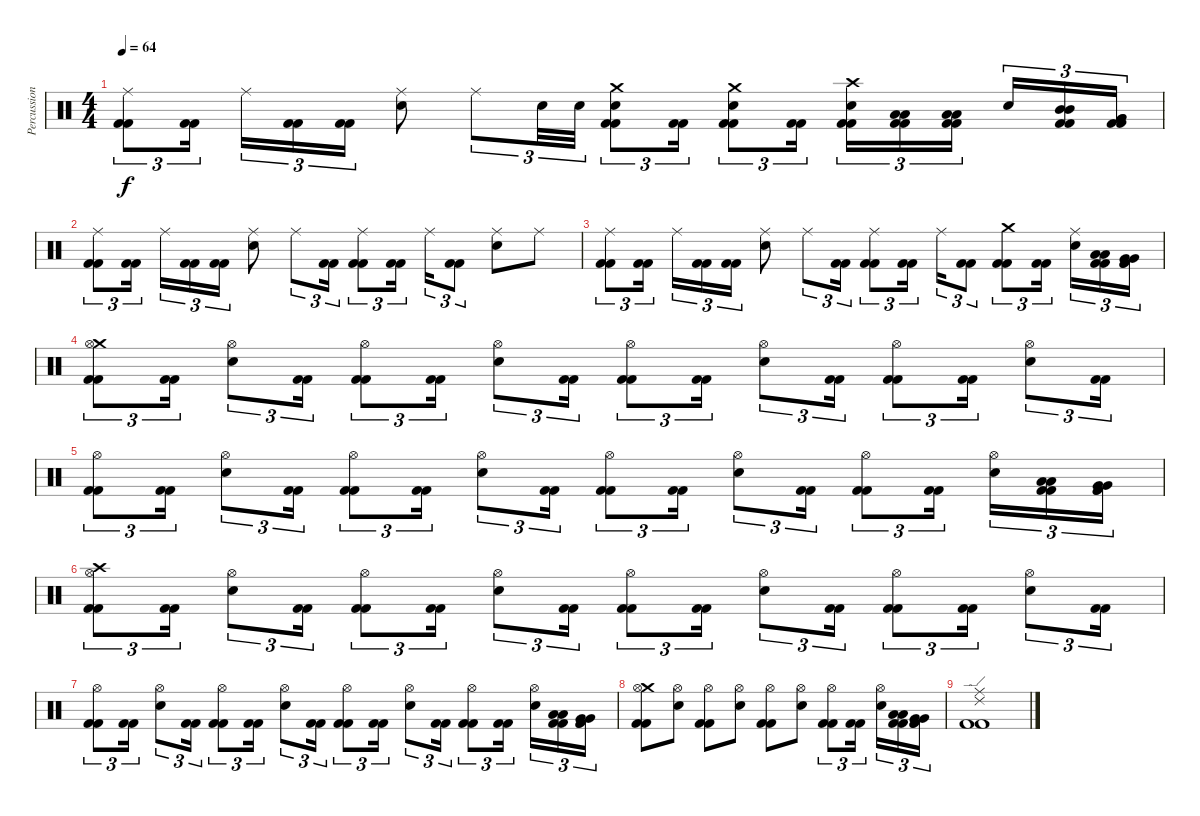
\track ("Percussion" "Percussion") {instrument percussion}
\staff {score}
\articulation defaults
\ts (4 4)
\tempo 64
\clef neutral
\ks c
("Ride (middle)" "Kick (hit) 2" "Kick (hit) 2").8{tu (3 2) dy f} ("Kick (hit) 2" "Kick (hit) 2").16{tu (3 2) beam splitsecondary} "Ride (middle)".16{tu (3 2)} ("Kick (hit) 2" "Kick (hit) 2").16{tu (3 2)} ("Kick (hit) 2" "Kick (hit) 2").16{tu (3 2)} ("Ride (middle)" "Electric Snare (hit)").8 "Ride (middle)".8{tu (3 2)} "Electric Snare (hit)".32{tu (3 2)} "Electric Snare (hit)".32{tu (3 2)} ("Crash medium (hit)" "Electric Snare (hit)" "Kick (hit) 2" "Kick (hit) 2").8{tu (3 2)} ("Kick (hit) 2" "Kick (hit) 2").16{tu (3 2)} ("Crash medium (hit)" "Electric Snare (hit)" "Kick (hit) 2" "Kick (hit) 2").8{tu (3 2)} ("Kick (hit) 2" "Kick (hit) 2").16{tu (3 2)} ("Crash high (hit)" "Electric Snare (hit)" "Kick (hit) 2" "Kick (hit) 2").16{tu (3 2)} ("Low Tom (hit)" "Low Tom (hit)" "Kick (hit) 2" "Kick (hit) 2").16{tu (3 2)} ("Low Tom (hit)" "Low Tom (hit)" "Kick (hit) 2" "Kick (hit) 2").16{tu (3 2) beam splitsecondary} "Electric Snare (hit)".16{tu (3 2)} ("Mid Tom (hit)" "Mid Tom (hit)" "Kick (hit) 2" "Kick (hit) 2").16{tu (3 2)} ("Very Low Tom (hit)" "Very Low Tom (hit)" "Kick (hit) 2" "Kick (hit) 2").16{tu (3 2)} |
("Ride (middle)" "Kick (hit) 2" "Kick (hit) 2").8{tu (3 2)} ("Kick (hit) 2" "Kick (hit) 2").16{tu (3 2) beam splitsecondary} "Ride (middle)".16{tu (3 2)} ("Kick (hit) 2" "Kick (hit) 2").16{tu (3 2)} ("Kick (hit) 2" "Kick (hit) 2").16{tu (3 2)} ("Ride (middle)" "Electric Snare (hit)").8 "Ride (middle)".8{tu (3 2)} ("Kick (hit) 2" "Kick (hit) 2").16{tu (3 2)} ("Ride (middle)" "Kick (hit) 2" "Kick (hit) 2").8{tu (3 2)} ("Kick (hit) 2" "Kick (hit) 2").16{tu (3 2) beam splitsecondary} "Ride (middle)".16{tu (3 2)} ("Kick (hit) 2" "Kick (hit) 2").8{tu (3 2)} ("Ride (middle)" "Electric Snare (hit)").8 "Ride (middle)".8 |
("Ride (middle)" "Kick (hit) 2" "Kick (hit) 2").8{tu (3 2)} ("Kick (hit) 2" "Kick (hit) 2").16{tu (3 2) beam splitsecondary} "Ride (middle)".16{tu (3 2)} ("Kick (hit) 2" "Kick (hit) 2").16{tu (3 2)} ("Kick (hit) 2" "Kick (hit) 2").16{tu (3 2)} ("Ride (middle)" "Electric Snare (hit)").8 "Ride (middle)".8{tu (3 2)} ("Kick (hit) 2" "Kick (hit) 2").16{tu (3 2)} ("Ride (middle)" "Kick (hit) 2" "Kick (hit) 2").8{tu (3 2)} ("Kick (hit) 2" "Kick (hit) 2").16{tu (3 2) beam splitsecondary} "Ride (middle)".16{tu (3 2)} ("Kick (hit) 2" "Kick (hit) 2").8{tu (3 2)} ("Crash medium (hit)" "Kick (hit) 2" "Kick (hit) 2").8{tu (3 2)} ("Kick (hit) 2" "Kick (hit) 2").16{tu (3 2) beam splitsecondary} ("Ride (middle)" "Electric Snare (hit)").16{tu (3 2)} ("Low Tom (hit)" "Low Tom (hit)" "Kick (hit) 2" "Kick (hit) 2").16{tu (3 2)} ("Very Low Tom (hit)" "Very Low Tom (hit)" "Kick (hit) 2" "Kick (hit) 2").16{tu (3 2)} |
("Crash medium (hit)" "Hi-Hat (open)" "Kick (hit) 2" "Kick (hit) 2").8{tu (3 2)} ("Kick (hit) 2" "Kick (hit) 2").16{tu (3 2)} ("Hi-Hat (open)" "Electric Snare (hit)").8{tu (3 2)} ("Kick (hit) 2" "Kick (hit) 2").16{tu (3 2)} ("Hi-Hat (open)" "Kick (hit) 2" "Kick (hit) 2").8{tu (3 2)} ("Kick (hit) 2" "Kick (hit) 2").16{tu (3 2)} ("Hi-Hat (open)" "Electric Snare (hit)").8{tu (3 2)} ("Kick (hit) 2" "Kick (hit) 2").16{tu (3 2)} ("Hi-Hat (open)" "Kick (hit) 2" "Kick (hit) 2").8{tu (3 2)} ("Kick (hit) 2" "Kick (hit) 2").16{tu (3 2)} ("Hi-Hat (open)" "Electric Snare (hit)").8{tu (3 2)} ("Kick (hit) 2" "Kick (hit) 2").16{tu (3 2)} ("Hi-Hat (open)" "Kick (hit) 2" "Kick (hit) 2").8{tu (3 2)} ("Kick (hit) 2" "Kick (hit) 2").16{tu (3 2)} ("Hi-Hat (open)" "Electric Snare (hit)").8{tu (3 2)} ("Kick (hit) 2" "Kick (hit) 2").16{tu (3 2)} |
("Hi-Hat (open)" "Kick (hit) 2" "Kick (hit) 2").8{tu (3 2)} ("Kick (hit) 2" "Kick (hit) 2").16{tu (3 2)} ("Hi-Hat (open)" "Electric Snare (hit)").8{tu (3 2)} ("Kick (hit) 2" "Kick (hit) 2").16{tu (3 2)} ("Hi-Hat (open)" "Kick (hit) 2" "Kick (hit) 2").8{tu (3 2)} ("Kick (hit) 2" "Kick (hit) 2").16{tu (3 2)} ("Hi-Hat (open)" "Electric Snare (hit)").8{tu (3 2)} ("Kick (hit) 2" "Kick (hit) 2").16{tu (3 2)} ("Hi-Hat (open)" "Kick (hit) 2" "Kick (hit) 2").8{tu (3 2)} ("Kick (hit) 2" "Kick (hit) 2").16{tu (3 2)} ("Hi-Hat (open)" "Electric Snare (hit)").8{tu (3 2)} ("Kick (hit) 2" "Kick (hit) 2").16{tu (3 2)} ("Hi-Hat (open)" "Kick (hit) 2" "Kick (hit) 2").8{tu (3 2)} ("Kick (hit) 2" "Kick (hit) 2").16{tu (3 2) beam splitsecondary} ("Hi-Hat (open)" "Electric Snare (hit)").16{tu (3 2)} ("Low Tom (hit)" "Low Tom (hit)" "Kick (hit) 2" "Kick (hit) 2").16{tu (3 2)} ("Very Low Tom (hit)" "Very Low Tom (hit)" "Kick (hit) 2" "Kick (hit) 2").16{tu (3 2)} |
("Crash high (hit)" "Hi-Hat (open)" "Kick (hit) 2" "Kick (hit) 2").8{tu (3 2)} ("Kick (hit) 2" "Kick (hit) 2").16{tu (3 2)} ("Hi-Hat (open)" "Electric Snare (hit)").8{tu (3 2)} ("Kick (hit) 2" "Kick (hit) 2").16{tu (3 2)} ("Hi-Hat (open)" "Kick (hit) 2" "Kick (hit) 2").8{tu (3 2)} ("Kick (hit) 2" "Kick (hit) 2").16{tu (3 2)} ("Hi-Hat (open)" "Electric Snare (hit)").8{tu (3 2)} ("Kick (hit) 2" "Kick (hit) 2").16{tu (3 2)} ("Hi-Hat (open)" "Kick (hit) 2" "Kick (hit) 2").8{tu (3 2)} ("Kick (hit) 2" "Kick (hit) 2").16{tu (3 2)} ("Hi-Hat (open)" "Electric Snare (hit)").8{tu (3 2)} ("Kick (hit) 2" "Kick (hit) 2").16{tu (3 2)} ("Hi-Hat (open)" "Kick (hit) 2" "Kick (hit) 2").8{tu (3 2)} ("Kick (hit) 2" "Kick (hit) 2").16{tu (3 2)} ("Hi-Hat (open)" "Electric Snare (hit)").8{tu (3 2)} ("Kick (hit) 2" "Kick (hit) 2").16{tu (3 2)} |
("Hi-Hat (open)" "Kick (hit) 2" "Kick (hit) 2").8{tu (3 2)} ("Kick (hit) 2" "Kick (hit) 2").16{tu (3 2)} ("Hi-Hat (open)" "Electric Snare (hit)").8{tu (3 2)} ("Kick (hit) 2" "Kick (hit) 2").16{tu (3 2)} ("Hi-Hat (open)" "Kick (hit) 2" "Kick (hit) 2").8{tu (3 2)} ("Kick (hit) 2" "Kick (hit) 2").16{tu (3 2)} ("Hi-Hat (open)" "Electric Snare (hit)").8{tu (3 2)} ("Kick (hit) 2" "Kick (hit) 2").16{tu (3 2)} ("Hi-Hat (open)" "Kick (hit) 2" "Kick (hit) 2").8{tu (3 2)} ("Kick (hit) 2" "Kick (hit) 2").16{tu (3 2)} ("Hi-Hat (open)" "Electric Snare (hit)").8{tu (3 2)} ("Kick (hit) 2" "Kick (hit) 2").16{tu (3 2)} ("Hi-Hat (open)" "Kick (hit) 2" "Kick (hit) 2").8{tu (3 2)} ("Kick (hit) 2" "Kick (hit) 2").16{tu (3 2) beam splitsecondary} ("Hi-Hat (open)" "Electric Snare (hit)").16{tu (3 2)} ("Low Tom (hit)" "Low Tom (hit)" "Kick (hit) 2" "Kick (hit) 2").16{tu (3 2)} ("Very Low Tom (hit)" "Very Low Tom (hit)" "Kick (hit) 2" "Kick (hit) 2").16{tu (3 2)} |
("Crash medium (hit)" "Hi-Hat (open)" "Kick (hit) 2" "Kick (hit) 2").8 ("Hi-Hat (open)" "Electric Snare (hit)").8 ("Hi-Hat (open)" "Kick (hit) 2" "Kick (hit) 2").8 ("Hi-Hat (open)" "Electric Snare (hit)").8 ("Hi-Hat (open)" "Kick (hit) 2" "Kick (hit) 2").8 ("Hi-Hat (open)" "Electric Snare (hit)").8 ("Hi-Hat (open)" "Kick (hit) 2" "Kick (hit) 2").8{tu (3 2)} ("Kick (hit) 2" "Kick (hit) 2").16{tu (3 2) beam splitsecondary} ("Hi-Hat (open)" "Electric Snare (hit)").16{tu (3 2)} ("Low Tom (hit)" "Low Tom (hit)" "Kick (hit) 2" "Kick (hit) 2").16{tu (3 2)} ("Very Low Tom (hit)" "Very Low Tom (hit)" "Kick (hit) 2" "Kick (hit) 2").16{tu (3 2)} |
("Ride (edge) 2" "Ride (middle)" "Kick (hit) 2" "Kick (hit) 2").1
